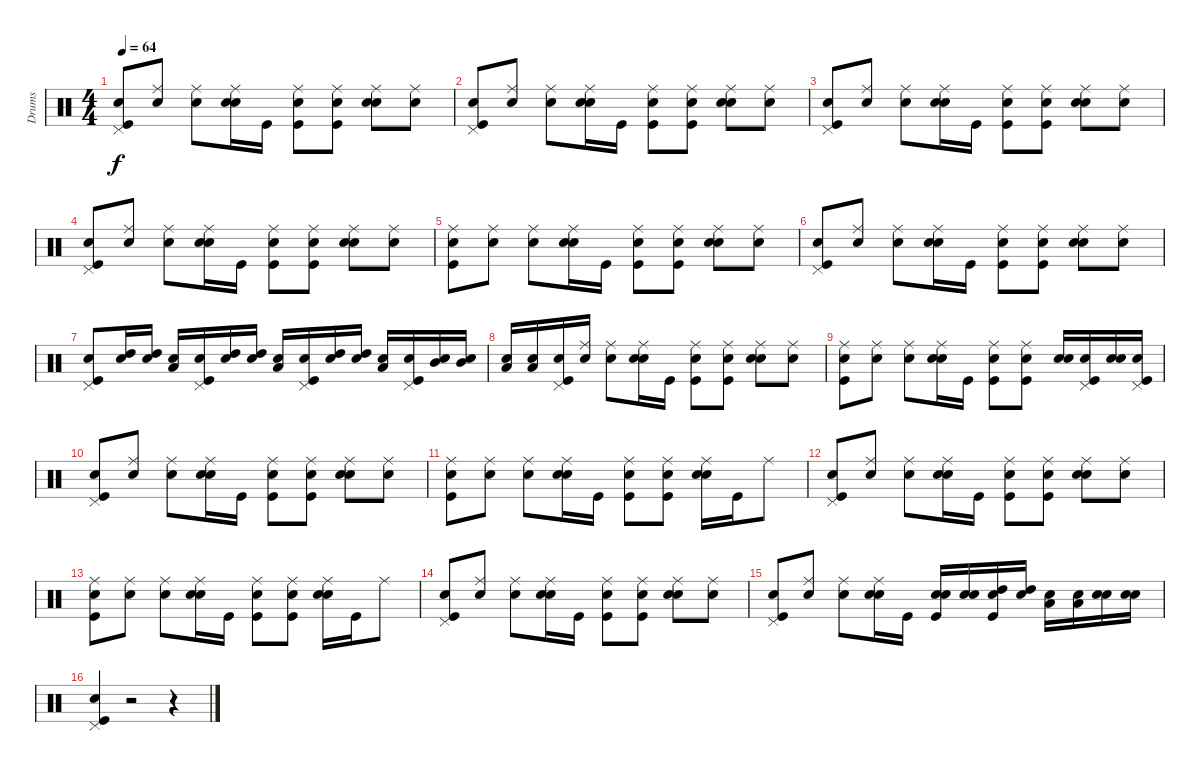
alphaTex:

\track ("Drums" "Drums") {instrument percussion}
\staff {score}
\articulation defaults
\ts (4 4)
\tempo 64
\clef neutral
\ks c
("Snare (hit)" "Kick (hit)" "Pedal Hi-Hat (hit)").8{dy f} ("Snare (hit)" "Ride (middle)").8 ("Snare (hit)" "Ride (middle)").8 ("Snare (hit)" "Electric Snare (hit)" "Ride (middle)").16 "Kick (hit)".16 ("Snare (hit)" "Kick (hit)" "Ride (middle)").8 ("Snare (hit)" "Kick (hit)" "Ride (middle)").8 ("Snare (hit)" "Ride (middle)" "Snare (hit) 2").8 ("Snare (hit)" "Ride (middle)").8 |
("Snare (hit)" "Kick (hit)" "Pedal Hi-Hat (hit)").8 ("Snare (hit)" "Ride (middle)").8 ("Snare (hit)" "Ride (middle)").8 ("Snare (hit)" "Electric Snare (hit)" "Ride (middle)").16 "Kick (hit)".16 ("Snare (hit)" "Kick (hit)" "Ride (middle)").8 ("Snare (hit)" "Kick (hit)" "Ride (middle)").8 ("Snare (hit)" "Ride (middle)" "Snare (hit) 2").8 ("Snare (hit)" "Ride (middle)").8 |
("Snare (hit)" "Kick (hit)" "Pedal Hi-Hat (hit)").8 ("Snare (hit)" "Ride (middle)").8 ("Snare (hit)" "Ride (middle)").8 ("Snare (hit)" "Electric Snare (hit)" "Ride (middle)").16 "Kick (hit)".16 ("Snare (hit)" "Kick (hit)" "Ride (middle)").8 ("Snare (hit)" "Kick (hit)" "Ride (middle)").8 ("Snare (hit)" "Ride (middle)" "Snare (hit) 2").8 ("Snare (hit)" "Ride (middle)").8 |
("Snare (hit)" "Kick (hit)" "Pedal Hi-Hat (hit)").8 ("Snare (hit)" "Ride (middle)").8 ("Snare (hit)" "Ride (middle)").8 ("Snare (hit)" "Electric Snare (hit)" "Ride (middle)").16 "Kick (hit)".16 ("Snare (hit)" "Kick (hit)" "Ride (middle)").8 ("Snare (hit)" "Kick (hit)" "Ride (middle)").8 ("Snare (hit)" "Ride (middle)" "Snare (hit) 2").8 ("Snare (hit)" "Ride (middle)").8 |
("Snare (hit)" "Ride (middle)" "Kick (hit)").8 ("Snare (hit)" "Ride (middle)").8 ("Snare (hit)" "Ride (middle)").8 ("Snare (hit)" "Electric Snare (hit)" "Ride (middle)").16 "Kick (hit)".16 ("Snare (hit)" "Kick (hit)" "Ride (middle)").8 ("Snare (hit)" "Kick (hit)" "Ride (middle)").8 ("Snare (hit)" "Ride (middle)" "Snare (hit) 2").8 ("Snare (hit)" "Ride (middle)").8 |
("Snare (hit)" "Kick (hit)" "Pedal Hi-Hat (hit)").8 ("Snare (hit)" "Ride (middle)").8 ("Snare (hit)" "Ride (middle)").8 ("Snare (hit)" "Electric Snare (hit)" "Ride (middle)").16 "Kick (hit)".16 ("Snare (hit)" "Kick (hit)" "Ride (middle)").8 ("Snare (hit)" "Kick (hit)" "Ride (middle)").8 ("Snare (hit)" "Ride (middle)" "Snare (hit) 2").8 ("Snare (hit)" "Ride (middle)").8 |
("Snare (hit)" "Kick (hit)" "Pedal Hi-Hat (hit)").8 ("Snare (hit)" "High Tom (hit)").16 ("Snare (hit)" "High Tom (hit)").16 ("Snare (hit)" "Low Tom (hit)").16 ("Snare (hit)" "Kick (hit)" "Pedal Hi-Hat (hit)").16 ("Snare (hit)" "High Tom (hit)").16 ("Snare (hit)" "High Tom (hit)").16 ("Snare (hit)" "Low Tom (hit)").16 ("Snare (hit)" "Kick (hit)" "Pedal Hi-Hat (hit)").16 ("Snare (hit)" "High Tom (hit)").16 ("Snare (hit)" "High Tom (hit)").16 ("Snare (hit)" "Low Tom (hit)").16 ("Snare (hit)" "Kick (hit)" "Pedal Hi-Hat (hit)").16 ("Snare (hit)" "Mid Tom (hit)").16 ("Snare (hit)" "Mid Tom (hit)").16 |
("Snare (hit)" "Low Floor Tom (hit)").16 ("Snare (hit)" "Low Floor Tom (hit)").16 ("Snare (hit)" "Kick (hit)" "Pedal Hi-Hat (hit)").16 ("Snare (hit)" "Ride (middle)").16 ("Snare (hit)" "Ride (middle)").8 ("Snare (hit)" "Electric Snare (hit)" "Ride (middle)").16 "Kick (hit)".16 ("Snare (hit)" "Kick (hit)" "Ride (middle)").8 ("Snare (hit)" "Kick (hit)" "Ride (middle)").8 ("Snare (hit)" "Ride (middle)" "Snare (hit) 2").8 ("Snare (hit)" "Ride (middle)").8 |
("Snare (hit)" "Ride (middle)" "Kick (hit)").8 ("Snare (hit)" "Ride (middle)").8 ("Snare (hit)" "Ride (middle)").8 ("Snare (hit)" "Electric Snare (hit)" "Ride (middle)").16 "Kick (hit)".16 ("Snare (hit)" "Kick (hit)" "Ride (middle)").8 ("Snare (hit)" "Kick (hit)" "Ride (middle)").8 ("Snare (hit)" "Electric Snare (hit)").16 ("Snare (hit)" "Kick (hit)" "Pedal Hi-Hat (hit)").16 ("Snare (hit)" "Electric Snare (hit)").16 ("Snare (hit)" "Kick (hit)" "Pedal Hi-Hat (hit)").16 |
("Snare (hit)" "Kick (hit)" "Pedal Hi-Hat (hit)").8 ("Snare (hit)" "Ride (middle)").8 ("Snare (hit)" "Ride (middle)").8 ("Snare (hit)" "Electric Snare (hit)" "Ride (middle)").16 "Kick (hit)".16 ("Snare (hit)" "Kick (hit)" "Ride (middle)").8 ("Snare (hit)" "Kick (hit)" "Ride (middle)").8 ("Snare (hit)" "Ride (middle)" "Snare (hit) 2").8 ("Snare (hit)" "Ride (middle)").8 |
("Snare (hit)" "Ride (middle)" "Kick (hit)").8 ("Snare (hit)" "Ride (middle)").8 ("Snare (hit)" "Ride (middle)").8 ("Snare (hit)" "Electric Snare (hit)" "Ride (middle)").16 "Kick (hit)".16 ("Snare (hit)" "Kick (hit)" "Ride (middle)").8 ("Snare (hit)" "Kick (hit)" "Ride (middle)").8 ("Snare (hit)" "Ride (middle)" "Snare (hit) 2").16 "Kick (hit)".16 "Ride (middle)".8 |
("Snare (hit)" "Kick (hit)" "Pedal Hi-Hat (hit)").8 ("Snare (hit)" "Ride (middle)").8 ("Snare (hit)" "Ride (middle)").8 ("Snare (hit)" "Electric Snare (hit)" "Ride (middle)").16 "Kick (hit)".16 ("Snare (hit)" "Kick (hit)" "Ride (middle)").8 ("Snare (hit)" "Kick (hit)" "Ride (middle)").8 ("Snare (hit)" "Ride (middle)" "Snare (hit) 2").8 ("Snare (hit)" "Ride (middle)").8 |
("Snare (hit)" "Ride (middle)" "Kick (hit)").8 ("Snare (hit)" "Ride (middle)").8 ("Snare (hit)" "Ride (middle)").8 ("Snare (hit)" "Snare (hit) 2" "Ride (middle)").16 "Kick (hit)".16 ("Snare (hit)" "Kick (hit)" "Ride (middle)").8 ("Snare (hit)" "Kick (hit)" "Ride (middle)").8 ("Snare (hit)" "Ride (middle)" "Snare (hit) 2").16 "Kick (hit)".16 "Ride (middle)".8 |
("Snare (hit)" "Kick (hit)" "Pedal Hi-Hat (hit)").8 ("Snare (hit)" "Ride (middle)").8 ("Snare (hit)" "Ride (middle)").8 ("Snare (hit)" "Electric Snare (hit)" "Ride (middle)").16 "Kick (hit)".16 ("Snare (hit)" "Kick (hit)" "Ride (middle)").8 ("Snare (hit)" "Kick (hit)" "Ride (middle)").8 ("Snare (hit)" "Ride (middle)" "Snare (hit) 2").8 ("Snare (hit)" "Ride (middle)").8 |
("Snare (hit)" "Kick (hit)" "Pedal Hi-Hat (hit)").8 ("Snare (hit)" "Ride (middle)").8 ("Snare (hit)" "Ride (middle)").8 ("Snare (hit)" "Electric Snare (hit)" "Ride (middle)").16 "Kick (hit)".16 ("Snare (hit)" "Kick (hit)" "Snare (hit) 2").16 ("Snare (hit)" "Snare (hit) 2").16 ("Snare (hit)" "Kick (hit)" "High Tom (hit)").16 ("Snare (hit)" "High Tom (hit)").16 ("Snare (hit)" "Low Tom (hit)").16 ("Snare (hit)" "Low Tom (hit)").16 ("Snare (hit)" "Electric Snare (hit)").16 ("Snare (hit)" "Electric Snare (hit)").16 |
("Snare (hit)" "Kick (hit)" "Pedal Hi-Hat (hit)").4 r.2 r.4
